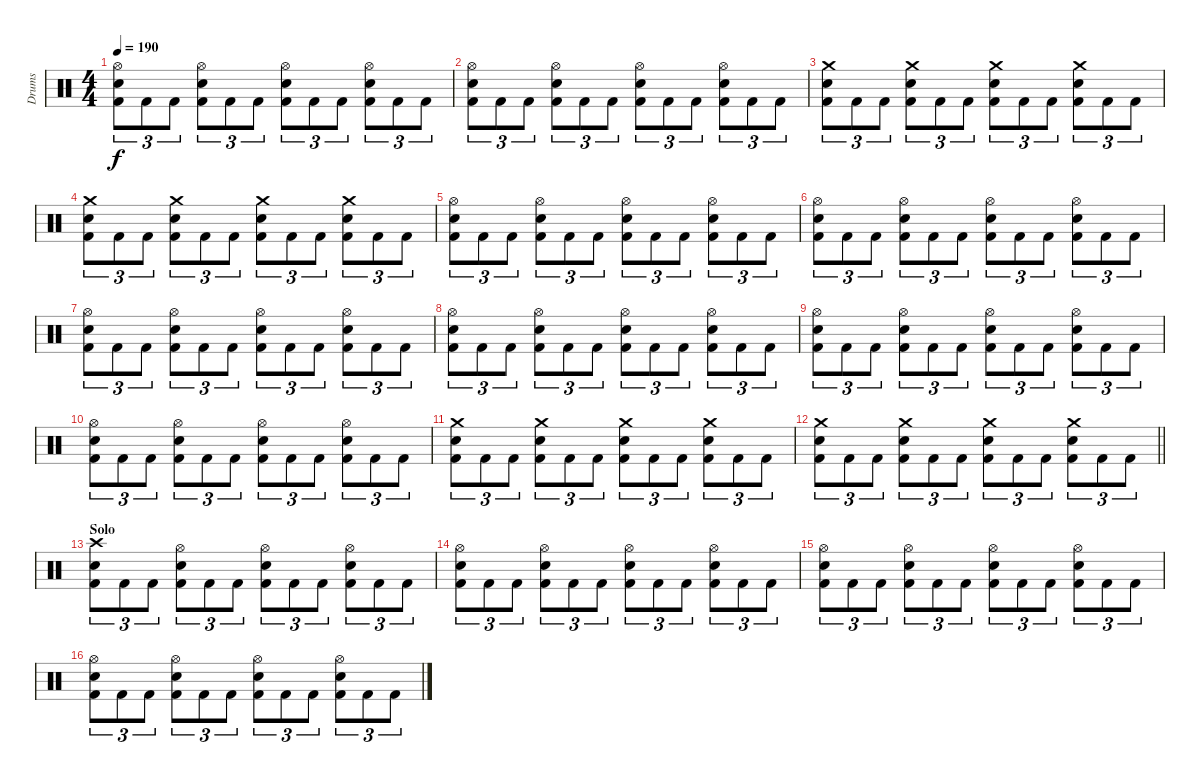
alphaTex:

\track ("Drums" "Drums") {instrument percussion}
\staff {score}
\articulation defaults
\ts (4 4)
\tempo 190
\clef neutral
\ks c
("Hi-Hat (open)" "Electric Snare (hit)" "Kick (hit) 2").8{tu (3 2) dy f} "Kick (hit) 2".8{tu (3 2)} "Kick (hit) 2".8{tu (3 2)} ("Hi-Hat (open)" "Electric Snare (hit)" "Kick (hit) 2").8{tu (3 2)} "Kick (hit) 2".8{tu (3 2)} "Kick (hit) 2".8{tu (3 2)} ("Hi-Hat (open)" "Electric Snare (hit)" "Kick (hit) 2").8{tu (3 2)} "Kick (hit) 2".8{tu (3 2)} "Kick (hit) 2".8{tu (3 2)} ("Hi-Hat (open)" "Electric Snare (hit)" "Kick (hit) 2").8{tu (3 2)} "Kick (hit) 2".8{tu (3 2)} "Kick (hit) 2".8{tu (3 2)} |
("Hi-Hat (open)" "Electric Snare (hit)" "Kick (hit) 2").8{tu (3 2)} "Kick (hit) 2".8{tu (3 2)} "Kick (hit) 2".8{tu (3 2)} ("Hi-Hat (open)" "Electric Snare (hit)" "Kick (hit) 2").8{tu (3 2)} "Kick (hit) 2".8{tu (3 2)} "Kick (hit) 2".8{tu (3 2)} ("Hi-Hat (open)" "Electric Snare (hit)" "Kick (hit) 2").8{tu (3 2)} "Kick (hit) 2".8{tu (3 2)} "Kick (hit) 2".8{tu (3 2)} ("Hi-Hat (open)" "Electric Snare (hit)" "Kick (hit) 2").8{tu (3 2)} "Kick (hit) 2".8{tu (3 2)} "Kick (hit) 2".8{tu (3 2)} |
("Crash medium (hit)" "Electric Snare (hit)" "Kick (hit) 2").8{tu (3 2)} "Kick (hit) 2".8{tu (3 2)} "Kick (hit) 2".8{tu (3 2)} ("Crash medium (hit)" "Electric Snare (hit)" "Kick (hit) 2").8{tu (3 2)} "Kick (hit) 2".8{tu (3 2)} "Kick (hit) 2".8{tu (3 2)} ("Crash medium (hit)" "Electric Snare (hit)" "Kick (hit) 2").8{tu (3 2)} "Kick (hit) 2".8{tu (3 2)} "Kick (hit) 2".8{tu (3 2)} ("Crash medium (hit)" "Electric Snare (hit)" "Kick (hit) 2").8{tu (3 2)} "Kick (hit) 2".8{tu (3 2)} "Kick (hit) 2".8{tu (3 2)} |
("Crash medium (hit)" "Electric Snare (hit)" "Kick (hit) 2").8{tu (3 2)} "Kick (hit) 2".8{tu (3 2)} "Kick (hit) 2".8{tu (3 2)} ("Crash medium (hit)" "Electric Snare (hit)" "Kick (hit) 2").8{tu (3 2)} "Kick (hit) 2".8{tu (3 2)} "Kick (hit) 2".8{tu (3 2)} ("Crash medium (hit)" "Electric Snare (hit)" "Kick (hit) 2").8{tu (3 2)} "Kick (hit) 2".8{tu (3 2)} "Kick (hit) 2".8{tu (3 2)} ("Crash medium (hit)" "Electric Snare (hit)" "Kick (hit) 2").8{tu (3 2)} "Kick (hit) 2".8{tu (3 2)} "Kick (hit) 2".8{tu (3 2)} |
("Hi-Hat (open)" "Electric Snare (hit)" "Kick (hit) 2").8{tu (3 2)} "Kick (hit) 2".8{tu (3 2)} "Kick (hit) 2".8{tu (3 2)} ("Hi-Hat (open)" "Electric Snare (hit)" "Kick (hit) 2").8{tu (3 2)} "Kick (hit) 2".8{tu (3 2)} "Kick (hit) 2".8{tu (3 2)} ("Hi-Hat (open)" "Electric Snare (hit)" "Kick (hit) 2").8{tu (3 2)} "Kick (hit) 2".8{tu (3 2)} "Kick (hit) 2".8{tu (3 2)} ("Hi-Hat (open)" "Electric Snare (hit)" "Kick (hit) 2").8{tu (3 2)} "Kick (hit) 2".8{tu (3 2)} "Kick (hit) 2".8{tu (3 2)} |
("Hi-Hat (open)" "Electric Snare (hit)" "Kick (hit) 2").8{tu (3 2)} "Kick (hit) 2".8{tu (3 2)} "Kick (hit) 2".8{tu (3 2)} ("Hi-Hat (open)" "Electric Snare (hit)" "Kick (hit) 2").8{tu (3 2)} "Kick (hit) 2".8{tu (3 2)} "Kick (hit) 2".8{tu (3 2)} ("Hi-Hat (open)" "Electric Snare (hit)" "Kick (hit) 2").8{tu (3 2)} "Kick (hit) 2".8{tu (3 2)} "Kick (hit) 2".8{tu (3 2)} ("Hi-Hat (open)" "Electric Snare (hit)" "Kick (hit) 2").8{tu (3 2)} "Kick (hit) 2".8{tu (3 2)} "Kick (hit) 2".8{tu (3 2)} |
("Hi-Hat (open)" "Electric Snare (hit)" "Kick (hit) 2").8{tu (3 2)} "Kick (hit) 2".8{tu (3 2)} "Kick (hit) 2".8{tu (3 2)} ("Hi-Hat (open)" "Electric Snare (hit)" "Kick (hit) 2").8{tu (3 2)} "Kick (hit) 2".8{tu (3 2)} "Kick (hit) 2".8{tu (3 2)} ("Hi-Hat (open)" "Electric Snare (hit)" "Kick (hit) 2").8{tu (3 2)} "Kick (hit) 2".8{tu (3 2)} "Kick (hit) 2".8{tu (3 2)} ("Hi-Hat (open)" "Electric Snare (hit)" "Kick (hit) 2").8{tu (3 2)} "Kick (hit) 2".8{tu (3 2)} "Kick (hit) 2".8{tu (3 2)} |
("Hi-Hat (open)" "Electric Snare (hit)" "Kick (hit) 2").8{tu (3 2)} "Kick (hit) 2".8{tu (3 2)} "Kick (hit) 2".8{tu (3 2)} ("Hi-Hat (open)" "Electric Snare (hit)" "Kick (hit) 2").8{tu (3 2)} "Kick (hit) 2".8{tu (3 2)} "Kick (hit) 2".8{tu (3 2)} ("Hi-Hat (open)" "Electric Snare (hit)" "Kick (hit) 2").8{tu (3 2)} "Kick (hit) 2".8{tu (3 2)} "Kick (hit) 2".8{tu (3 2)} ("Hi-Hat (open)" "Electric Snare (hit)" "Kick (hit) 2").8{tu (3 2)} "Kick (hit) 2".8{tu (3 2)} "Kick (hit) 2".8{tu (3 2)} |
("Hi-Hat (open)" "Electric Snare (hit)" "Kick (hit) 2").8{tu (3 2)} "Kick (hit) 2".8{tu (3 2)} "Kick (hit) 2".8{tu (3 2)} ("Hi-Hat (open)" "Electric Snare (hit)" "Kick (hit) 2").8{tu (3 2)} "Kick (hit) 2".8{tu (3 2)} "Kick (hit) 2".8{tu (3 2)} ("Hi-Hat (open)" "Electric Snare (hit)" "Kick (hit) 2").8{tu (3 2)} "Kick (hit) 2".8{tu (3 2)} "Kick (hit) 2".8{tu (3 2)} ("Hi-Hat (open)" "Electric Snare (hit)" "Kick (hit) 2").8{tu (3 2)} "Kick (hit) 2".8{tu (3 2)} "Kick (hit) 2".8{tu (3 2)} |
("Hi-Hat (open)" "Electric Snare (hit)" "Kick (hit) 2").8{tu (3 2)} "Kick (hit) 2".8{tu (3 2)} "Kick (hit) 2".8{tu (3 2)} ("Hi-Hat (open)" "Electric Snare (hit)" "Kick (hit) 2").8{tu (3 2)} "Kick (hit) 2".8{tu (3 2)} "Kick (hit) 2".8{tu (3 2)} ("Hi-Hat (open)" "Electric Snare (hit)" "Kick (hit) 2").8{tu (3 2)} "Kick (hit) 2".8{tu (3 2)} "Kick (hit) 2".8{tu (3 2)} ("Hi-Hat (open)" "Electric Snare (hit)" "Kick (hit) 2").8{tu (3 2)} "Kick (hit) 2".8{tu (3 2)} "Kick (hit) 2".8{tu (3 2)} |
("Crash medium (hit)" "Electric Snare (hit)" "Kick (hit) 2").8{tu (3 2)} "Kick (hit) 2".8{tu (3 2)} "Kick (hit) 2".8{tu (3 2)} ("Crash medium (hit)" "Electric Snare (hit)" "Kick (hit) 2").8{tu (3 2)} "Kick (hit) 2".8{tu (3 2)} "Kick (hit) 2".8{tu (3 2)} ("Crash medium (hit)" "Electric Snare (hit)" "Kick (hit) 2").8{tu (3 2)} "Kick (hit) 2".8{tu (3 2)} "Kick (hit) 2".8{tu (3 2)} ("Crash medium (hit)" "Electric Snare (hit)" "Kick (hit) 2").8{tu (3 2)} "Kick (hit) 2".8{tu (3 2)} "Kick (hit) 2".8{tu (3 2)} |
\barLineRight lightlight
("Crash medium (hit)" "Electric Snare (hit)" "Kick (hit) 2").8{tu (3 2)} "Kick (hit) 2".8{tu (3 2)} "Kick (hit) 2".8{tu (3 2)} ("Crash medium (hit)" "Electric Snare (hit)" "Kick (hit) 2").8{tu (3 2)} "Kick (hit) 2".8{tu (3 2)} "Kick (hit) 2".8{tu (3 2)} ("Crash medium (hit)" "Electric Snare (hit)" "Kick (hit) 2").8{tu (3 2)} "Kick (hit) 2".8{tu (3 2)} "Kick (hit) 2".8{tu (3 2)} ("Crash medium (hit)" "Electric Snare (hit)" "Kick (hit) 2").8{tu (3 2)} "Kick (hit) 2".8{tu (3 2)} "Kick (hit) 2".8{tu (3 2)} |
\section ("" "Solo")
("Crash high (hit)" "Electric Snare (hit)" "Kick (hit) 2").8{tu (3 2)} "Kick (hit) 2".8{tu (3 2)} "Kick (hit) 2".8{tu (3 2)} ("Hi-Hat (open)" "Electric Snare (hit)" "Kick (hit) 2").8{tu (3 2)} "Kick (hit) 2".8{tu (3 2)} "Kick (hit) 2".8{tu (3 2)} ("Hi-Hat (open)" "Electric Snare (hit)" "Kick (hit) 2").8{tu (3 2)} "Kick (hit) 2".8{tu (3 2)} "Kick (hit) 2".8{tu (3 2)} ("Hi-Hat (open)" "Electric Snare (hit)" "Kick (hit) 2").8{tu (3 2)} "Kick (hit) 2".8{tu (3 2)} "Kick (hit) 2".8{tu (3 2)} |
("Hi-Hat (open)" "Electric Snare (hit)" "Kick (hit) 2").8{tu (3 2)} "Kick (hit) 2".8{tu (3 2)} "Kick (hit) 2".8{tu (3 2)} ("Hi-Hat (open)" "Electric Snare (hit)" "Kick (hit) 2").8{tu (3 2)} "Kick (hit) 2".8{tu (3 2)} "Kick (hit) 2".8{tu (3 2)} ("Hi-Hat (open)" "Electric Snare (hit)" "Kick (hit) 2").8{tu (3 2)} "Kick (hit) 2".8{tu (3 2)} "Kick (hit) 2".8{tu (3 2)} ("Hi-Hat (open)" "Electric Snare (hit)" "Kick (hit) 2").8{tu (3 2)} "Kick (hit) 2".8{tu (3 2)} "Kick (hit) 2".8{tu (3 2)} |
("Hi-Hat (open)" "Electric Snare (hit)" "Kick (hit) 2").8{tu (3 2)} "Kick (hit) 2".8{tu (3 2)} "Kick (hit) 2".8{tu (3 2)} ("Hi-Hat (open)" "Electric Snare (hit)" "Kick (hit) 2").8{tu (3 2)} "Kick (hit) 2".8{tu (3 2)} "Kick (hit) 2".8{tu (3 2)} ("Hi-Hat (open)" "Electric Snare (hit)" "Kick (hit) 2").8{tu (3 2)} "Kick (hit) 2".8{tu (3 2)} "Kick (hit) 2".8{tu (3 2)} ("Hi-Hat (open)" "Electric Snare (hit)" "Kick (hit) 2").8{tu (3 2)} "Kick (hit) 2".8{tu (3 2)} "Kick (hit) 2".8{tu (3 2)} |
("Hi-Hat (open)" "Electric Snare (hit)" "Kick (hit) 2").8{tu (3 2)} "Kick (hit) 2".8{tu (3 2)} "Kick (hit) 2".8{tu (3 2)} ("Hi-Hat (open)" "Electric Snare (hit)" "Kick (hit) 2").8{tu (3 2)} "Kick (hit) 2".8{tu (3 2)} "Kick (hit) 2".8{tu (3 2)} ("Hi-Hat (open)" "Electric Snare (hit)" "Kick (hit) 2").8{tu (3 2)} "Kick (hit) 2".8{tu (3 2)} "Kick (hit) 2".8{tu (3 2)} ("Hi-Hat (open)" "Electric Snare (hit)" "Kick (hit) 2").8{tu (3 2)} "Kick (hit) 2".8{tu (3 2)} "Kick (hit) 2".8{tu (3 2)}
